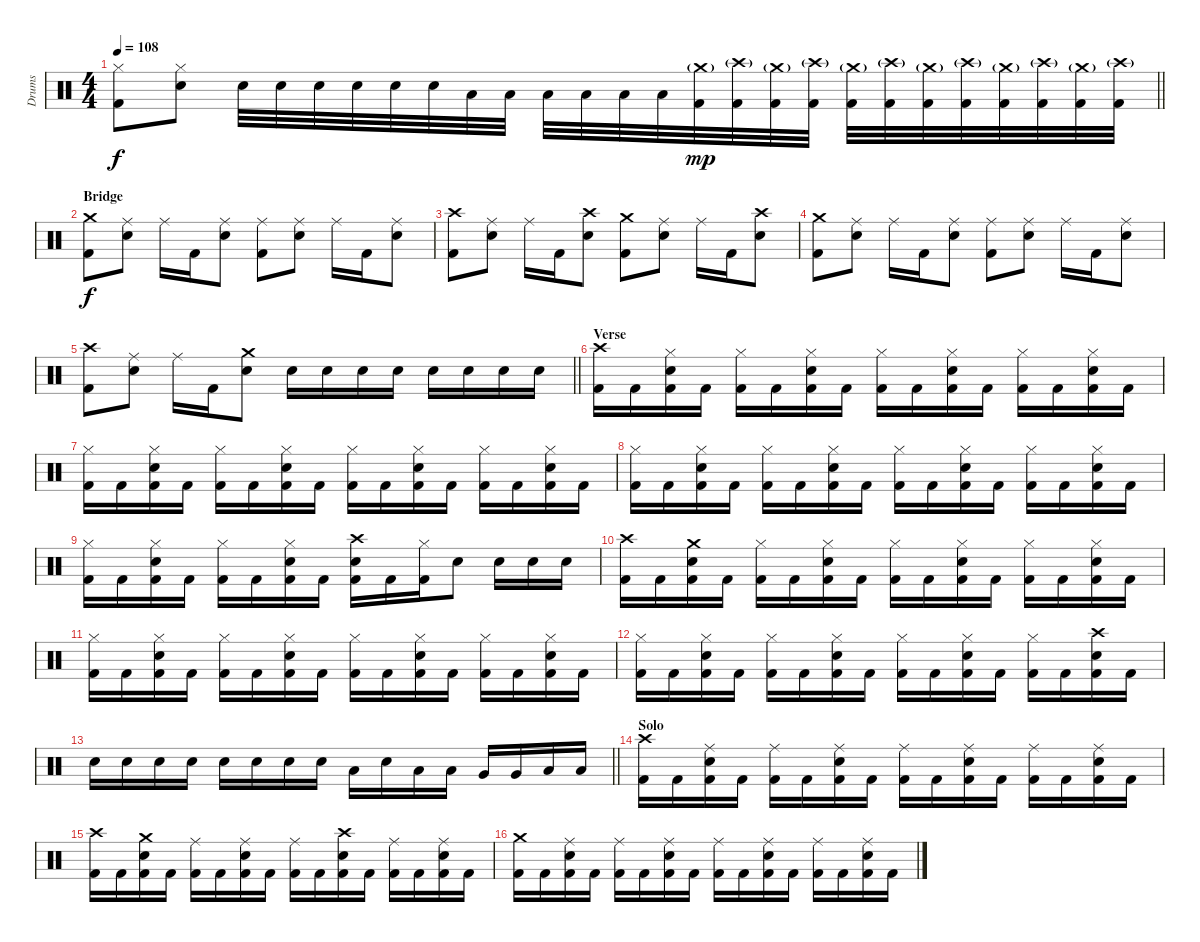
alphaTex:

\track ("Drums" "Drums") {instrument percussion}
\staff {score}
\articulation defaults
\ts (4 4)
\tempo 108
\clef neutral
\barLineRight lightlight
\ks c
("Hi-Hat (closed)" "Kick (hit) 2").8{dy f} ("Hi-Hat (closed)" "Snare (hit) 2").8 "Snare (hit) 2".32 "Snare (hit) 2".32 "Snare (hit) 2".32 "Snare (hit) 2".32 "Snare (hit) 2".32 "Snare (hit) 2".32 "Low Tom (hit)".32 "Low Tom (hit)".32 "Low Tom (hit)".32 "Low Tom (hit)".32 "Low Tom (hit)".32 "Low Tom (hit)".32 ("Crash medium (hit)"{g} "Kick (hit) 2").32{dy mp volume 9} ("Crash high (hit)"{g} "Kick (hit) 2").32 ("Crash medium (hit)"{g} "Kick (hit) 2").32 ("Crash high (hit)"{g} "Kick (hit) 2").32 ("Crash medium (hit)"{g} "Kick (hit) 2").32 ("Crash high (hit)"{g} "Kick (hit) 2").32 ("Crash medium (hit)"{g} "Kick (hit) 2").32 ("Crash high (hit)"{g} "Kick (hit) 2").32 ("Crash medium (hit)"{g} "Kick (hit) 2").32 ("Crash high (hit)"{g} "Kick (hit) 2").32 ("Crash medium (hit)"{g} "Kick (hit) 2").32 ("Crash high (hit)"{g} "Kick (hit) 2").32 |
\section ("" "Bridge")
("Crash medium (hit)" "Kick (hit) 2").8{dy f volume 12} ("Ride (middle)" "Snare (hit) 2").8 "Ride (middle)".16 "Kick (hit) 2".16 ("Ride (middle)" "Snare (hit) 2").8 ("Ride (middle)" "Kick (hit) 2").8 ("Ride (middle)" "Snare (hit) 2").8 "Ride (middle)".16 "Kick (hit) 2".16 ("Ride (middle)" "Snare (hit) 2").8 |
("Crash high (hit)" "Kick (hit) 2").8 ("Ride (middle)" "Snare (hit) 2").8 "Ride (middle)".16 "Kick (hit) 2".16 ("Crash high (hit)" "Snare (hit) 2").8 ("Crash medium (hit)" "Kick (hit) 2").8 ("Ride (middle)" "Snare (hit) 2").8 "Ride (middle)".16 "Kick (hit) 2".16 ("Crash high (hit)" "Snare (hit) 2").8 |
("Crash medium (hit)" "Kick (hit) 2").8 ("Ride (middle)" "Snare (hit) 2").8 "Ride (middle)".16 "Kick (hit) 2".16 ("Ride (middle)" "Snare (hit) 2").8 ("Ride (middle)" "Kick (hit) 2").8 ("Ride (middle)" "Snare (hit) 2").8 "Ride (middle)".16 "Kick (hit) 2".16 ("Ride (middle)" "Snare (hit) 2").8 |
\barLineRight lightlight
("Crash high (hit)" "Kick (hit) 2").8 ("Ride (middle)" "Snare (hit) 2").8 "Ride (middle)".16 "Kick (hit) 2".16 ("Crash medium (hit)" "Snare (hit) 2").8 "Snare (hit) 2".16 "Snare (hit) 2".16 "Snare (hit) 2".16 "Snare (hit) 2".16 "Snare (hit) 2".16 "Snare (hit) 2".16 "Snare (hit) 2".16 "Snare (hit) 2".16 |
\section ("" "Verse")
("Crash high (hit)" "Kick (hit) 2").16 "Kick (hit) 2".16 ("Hi-Hat (closed)" "Snare (hit) 2" "Kick (hit) 2").16 "Kick (hit) 2".16 ("Hi-Hat (closed)" "Kick (hit) 2").16 "Kick (hit) 2".16 ("Hi-Hat (closed)" "Snare (hit) 2" "Kick (hit) 2").16 "Kick (hit) 2".16 ("Hi-Hat (closed)" "Kick (hit) 2").16 "Kick (hit) 2".16 ("Hi-Hat (closed)" "Snare (hit) 2" "Kick (hit) 2").16 "Kick (hit) 2".16 ("Hi-Hat (closed)" "Kick (hit) 2").16 "Kick (hit) 2".16 ("Hi-Hat (closed)" "Snare (hit) 2" "Kick (hit) 2").16 "Kick (hit) 2".16 |
("Hi-Hat (closed)" "Kick (hit) 2").16 "Kick (hit) 2".16 ("Hi-Hat (closed)" "Snare (hit) 2" "Kick (hit) 2").16 "Kick (hit) 2".16 ("Hi-Hat (closed)" "Kick (hit) 2").16 "Kick (hit) 2".16 ("Hi-Hat (closed)" "Snare (hit) 2" "Kick (hit) 2").16 "Kick (hit) 2".16 ("Hi-Hat (closed)" "Kick (hit) 2").16 "Kick (hit) 2".16 ("Hi-Hat (closed)" "Snare (hit) 2" "Kick (hit) 2").16 "Kick (hit) 2".16 ("Hi-Hat (closed)" "Kick (hit) 2").16 "Kick (hit) 2".16 ("Hi-Hat (closed)" "Snare (hit) 2" "Kick (hit) 2").16 "Kick (hit) 2".16 |
("Hi-Hat (closed)" "Kick (hit) 2").16 "Kick (hit) 2".16 ("Hi-Hat (closed)" "Snare (hit) 2" "Kick (hit) 2").16 "Kick (hit) 2".16 ("Hi-Hat (closed)" "Kick (hit) 2").16 "Kick (hit) 2".16 ("Hi-Hat (closed)" "Snare (hit) 2" "Kick (hit) 2").16 "Kick (hit) 2".16 ("Hi-Hat (closed)" "Kick (hit) 2").16 "Kick (hit) 2".16 ("Hi-Hat (closed)" "Snare (hit) 2" "Kick (hit) 2").16 "Kick (hit) 2".16 ("Hi-Hat (closed)" "Kick (hit) 2").16 "Kick (hit) 2".16 ("Hi-Hat (closed)" "Snare (hit) 2" "Kick (hit) 2").16 "Kick (hit) 2".16 |
("Hi-Hat (closed)" "Kick (hit) 2").16 "Kick (hit) 2".16 ("Hi-Hat (closed)" "Snare (hit) 2" "Kick (hit) 2").16 "Kick (hit) 2".16 ("Hi-Hat (closed)" "Kick (hit) 2").16 "Kick (hit) 2".16 ("Hi-Hat (closed)" "Snare (hit) 2" "Kick (hit) 2").16 "Kick (hit) 2".16 ("Crash high (hit)" "Snare (hit) 2" "Kick (hit) 2").16 "Kick (hit) 2".16 ("Hi-Hat (closed)" "Kick (hit) 2").16 "Snare (hit) 2".8 "Snare (hit) 2".16 "Snare (hit) 2".16 "Snare (hit) 2".16 |
("Crash high (hit)" "Kick (hit) 2").16 "Kick (hit) 2".16 ("Crash medium (hit)" "Snare (hit) 2" "Kick (hit) 2").16 "Kick (hit) 2".16 ("Hi-Hat (closed)" "Kick (hit) 2").16 "Kick (hit) 2".16 ("Hi-Hat (closed)" "Snare (hit) 2" "Kick (hit) 2").16 "Kick (hit) 2".16 ("Hi-Hat (closed)" "Kick (hit) 2").16 "Kick (hit) 2".16 ("Hi-Hat (closed)" "Snare (hit) 2" "Kick (hit) 2").16 "Kick (hit) 2".16 ("Hi-Hat (closed)" "Kick (hit) 2").16 "Kick (hit) 2".16 ("Hi-Hat (closed)" "Snare (hit) 2" "Kick (hit) 2").16 "Kick (hit) 2".16 |
("Hi-Hat (closed)" "Kick (hit) 2").16 "Kick (hit) 2".16 ("Hi-Hat (closed)" "Snare (hit) 2" "Kick (hit) 2").16 "Kick (hit) 2".16 ("Hi-Hat (closed)" "Kick (hit) 2").16 "Kick (hit) 2".16 ("Hi-Hat (closed)" "Snare (hit) 2" "Kick (hit) 2").16 "Kick (hit) 2".16 ("Hi-Hat (closed)" "Kick (hit) 2").16 "Kick (hit) 2".16 ("Hi-Hat (closed)" "Snare (hit) 2" "Kick (hit) 2").16 "Kick (hit) 2".16 ("Hi-Hat (closed)" "Kick (hit) 2").16 "Kick (hit) 2".16 ("Hi-Hat (closed)" "Snare (hit) 2" "Kick (hit) 2").16 "Kick (hit) 2".16 |
("Hi-Hat (closed)" "Kick (hit) 2").16 "Kick (hit) 2".16 ("Hi-Hat (closed)" "Snare (hit) 2" "Kick (hit) 2").16 "Kick (hit) 2".16 ("Hi-Hat (closed)" "Kick (hit) 2").16 "Kick (hit) 2".16 ("Hi-Hat (closed)" "Snare (hit) 2" "Kick (hit) 2").16 "Kick (hit) 2".16 ("Hi-Hat (closed)" "Kick (hit) 2").16 "Kick (hit) 2".16 ("Hi-Hat (closed)" "Snare (hit) 2" "Kick (hit) 2").16 "Kick (hit) 2".16 ("Hi-Hat (closed)" "Kick (hit) 2").16 "Kick (hit) 2".16 ("Crash high (hit)" "Snare (hit) 2" "Kick (hit) 2").16 "Kick (hit) 2".16 |
\barLineRight lightlight "Snare (hit) 2".16 "Snare (hit) 2".16 "Snare (hit) 2".16 "Snare (hit) 2".16 "Snare (hit) 2".16 "Snare (hit) 2".16 "Snare (hit) 2".16 "Snare (hit) 2".16 "Low Tom (hit)".16 "Snare (hit) 2".16 "Low Tom (hit)".16 "Low Tom (hit)".16 "Very Low Tom (hit)".16 "Very Low Tom (hit)".16 "Low Floor Tom (hit)".16 "Low Floor Tom (hit)".16
|
\section ("" "Solo")
("Crash high (hit)" "Kick (hit) 2").16 "Kick (hit) 2".16 ("Ride (middle)" "Snare (hit) 2" "Kick (hit) 2").16 "Kick (hit) 2".16 ("Ride (middle)" "Kick (hit) 2").16 "Kick (hit) 2".16 ("Ride (middle)" "Snare (hit) 2" "Kick (hit) 2").16 "Kick (hit) 2".16 ("Ride (middle)" "Kick (hit) 2").16 "Kick (hit) 2".16 ("Ride (middle)" "Snare (hit) 2" "Kick (hit) 2").16 "Kick (hit) 2".16 ("Ride (middle)" "Kick (hit) 2").16 "Kick (hit) 2".16 ("Ride (middle)" "Snare (hit) 2" "Kick (hit) 2").16 "Kick (hit) 2".16 |
("Crash high (hit)" "Kick (hit) 2").16 "Kick (hit) 2".16 ("Crash medium (hit)" "Snare (hit) 2" "Kick (hit) 2").16 "Kick (hit) 2".16 ("Ride (middle)" "Kick (hit) 2").16 "Kick (hit) 2".16 ("Ride (middle)" "Snare (hit) 2" "Kick (hit) 2").16 "Kick (hit) 2".16 ("Ride (middle)" "Kick (hit) 2").16 "Kick (hit) 2".16 ("Crash high (hit)" "Snare (hit) 2" "Kick (hit) 2").16 "Kick (hit) 2".16 ("Ride (middle)" "Kick (hit) 2").16 "Kick (hit) 2".16 ("Ride (middle)" "Snare (hit) 2" "Kick (hit) 2").16 "Kick (hit) 2".16 |
("Crash medium (hit)" "Kick (hit) 2").16 "Kick (hit) 2".16 ("Ride (middle)" "Snare (hit) 2" "Kick (hit) 2").16 "Kick (hit) 2".16 ("Ride (middle)" "Kick (hit) 2").16 "Kick (hit) 2".16 ("Ride (middle)" "Snare (hit) 2" "Kick (hit) 2").16 "Kick (hit) 2".16 ("Ride (middle)" "Kick (hit) 2").16 "Kick (hit) 2".16 ("Ride (middle)" "Snare (hit) 2" "Kick (hit) 2").16 "Kick (hit) 2".16 ("Ride (middle)" "Kick (hit) 2").16 "Kick (hit) 2".16 ("Ride (middle)" "Snare (hit) 2" "Kick (hit) 2").16 "Kick (hit) 2".16
